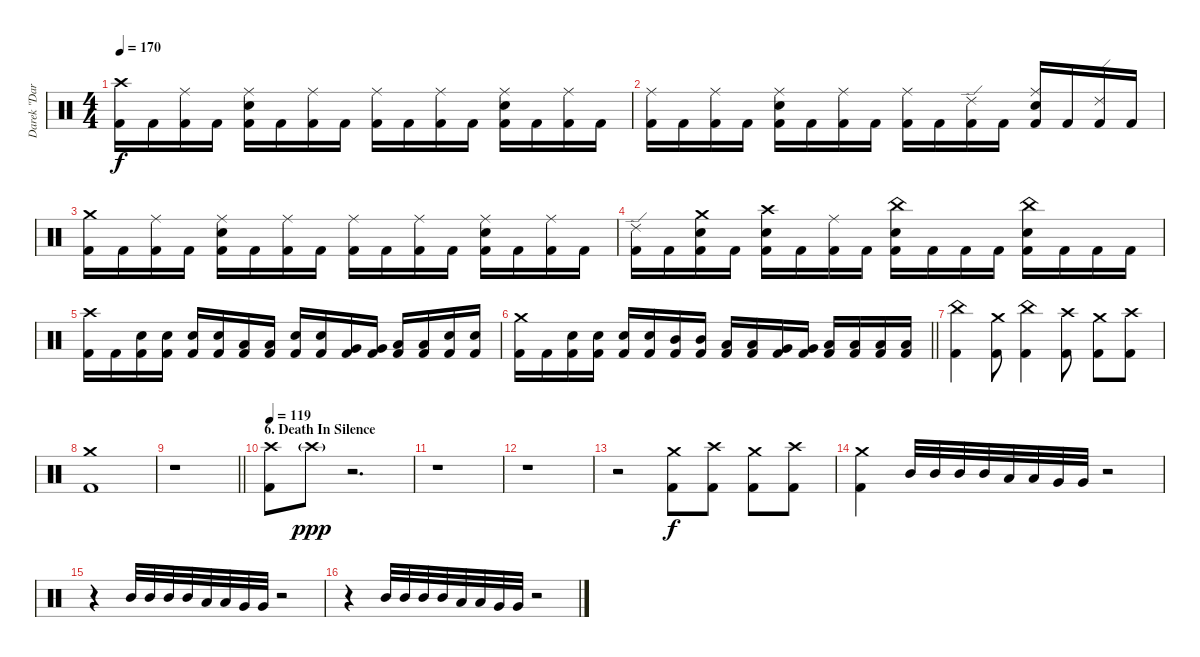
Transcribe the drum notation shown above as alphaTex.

\track ("Darek \"Daray\" Brzozowski " "Darek \"Dar") {instrument percussion}
\staff {score}
\articulation defaults
\ts (4 4)
\tempo 170
\clef neutral
\ks c
("Crash high (hit)" "Kick (hit) 2").16{dy f} "Kick (hit) 2".16 ("Ride (middle)" "Kick (hit) 2").16 "Kick (hit) 2".16 ("Ride (middle)" "Electric Snare (hit)" "Kick (hit) 2").16 "Kick (hit) 2".16 ("Ride (middle)" "Kick (hit) 2").16 "Kick (hit) 2".16 ("Ride (middle)" "Kick (hit) 2").16 "Kick (hit) 2".16 ("Ride (middle)" "Kick (hit) 2").16 "Kick (hit) 2".16 ("Ride (middle)" "Electric Snare (hit)" "Kick (hit) 2").16 "Kick (hit) 2".16 ("Ride (middle)" "Kick (hit) 2").16 "Kick (hit) 2".16 |
("Ride (middle)" "Kick (hit) 2").16 "Kick (hit) 2".16 ("Ride (middle)" "Kick (hit) 2").16 "Kick (hit) 2".16 ("Ride (middle)" "Electric Snare (hit)" "Kick (hit) 2").16 "Kick (hit) 2".16 ("Ride (middle)" "Kick (hit) 2").16 "Kick (hit) 2".16 ("Ride (middle)" "Kick (hit) 2").16 "Kick (hit) 2".16 ("Ride (edge) 2" "Kick (hit) 2").16 "Kick (hit) 2".16 ("Ride (middle)" "Electric Snare (hit)" "Kick (hit) 2").16 "Kick (hit) 2".16 ("Ride (edge) 2" "Kick (hit) 2").16 "Kick (hit) 2".16 |
("Crash medium (hit)" "Kick (hit) 2").16 "Kick (hit) 2".16 ("Ride (middle)" "Kick (hit) 2").16 "Kick (hit) 2".16 ("Ride (middle)" "Electric Snare (hit)" "Kick (hit) 2").16 "Kick (hit) 2".16 ("Ride (middle)" "Kick (hit) 2").16 "Kick (hit) 2".16 ("Ride (middle)" "Kick (hit) 2").16 "Kick (hit) 2".16 ("Ride (middle)" "Kick (hit) 2").16 "Kick (hit) 2".16 ("Ride (middle)" "Electric Snare (hit)" "Kick (hit) 2").16 "Kick (hit) 2".16 ("Ride (middle)" "Kick (hit) 2").16 "Kick (hit) 2".16 |
("Ride (edge) 2" "Kick (hit) 2").16 "Kick (hit) 2".16 ("Crash medium (hit)" "Electric Snare (hit)" "Kick (hit) 2").16 "Kick (hit) 2".16 ("Crash high (hit)" "Electric Snare (hit)" "Kick (hit) 2").16 "Kick (hit) 2".16 ("Ride (middle)" "Kick (hit) 2").16 "Kick (hit) 2".16 ("China (hit)" "Electric Snare (hit)" "Kick (hit) 2").16 "Kick (hit) 2".16 "Kick (hit) 2".16 "Kick (hit) 2".16 ("China (hit)" "Electric Snare (hit)" "Kick (hit) 2").16 "Kick (hit) 2".16 "Kick (hit) 2".16 "Kick (hit) 2".16 |
("Crash high (hit)" "Kick (hit) 2").16 "Kick (hit) 2".16 ("Electric Snare (hit)" "Kick (hit) 2").16 ("Electric Snare (hit)" "Kick (hit) 2").16 ("Electric Snare (hit)" "Kick (hit) 2").16 ("Electric Snare (hit)" "Kick (hit) 2").16 ("Low Tom (hit)" "Kick (hit) 2").16 ("Low Tom (hit)" "Kick (hit) 2").16 ("Electric Snare (hit)" "Kick (hit) 2").16 ("Electric Snare (hit)" "Kick (hit) 2").16 ("Very Low Tom (hit)" "Kick (hit) 2").16 ("Very Low Tom (hit)" "Kick (hit) 2").16 ("Low Floor Tom (hit)" "Kick (hit) 2").16 ("Low Floor Tom (hit)" "Kick (hit) 2").16 ("Electric Snare (hit)" "Kick (hit) 2").16 ("Electric Snare (hit)" "Kick (hit) 2").16 |
\barLineRight lightlight
("Crash medium (hit)" "Kick (hit) 2").16 "Kick (hit) 2".16 ("Electric Snare (hit)" "Kick (hit) 2").16 ("Electric Snare (hit)" "Kick (hit) 2").16 ("Electric Snare (hit)" "Kick (hit) 2").16 ("Electric Snare (hit)" "Kick (hit) 2").16 ("Mid Tom (hit)" "Kick (hit) 2").16 ("Mid Tom (hit)" "Kick (hit) 2").16 ("Low Tom (hit)" "Kick (hit) 2").16 ("Low Tom (hit)" "Kick (hit) 2").16 ("Very Low Tom (hit)" "Kick (hit) 2").16 ("Very Low Tom (hit)" "Kick (hit) 2").16 ("Low Floor Tom (hit)" "Kick (hit) 2").16 ("Low Floor Tom (hit)" "Kick (hit) 2").16 ("Low Floor Tom (hit)" "Kick (hit) 2").16 ("Low Floor Tom (hit)" "Kick (hit) 2").16 |
("China (hit)" "Kick (hit) 2").4 ("Crash medium (hit)" "Kick (hit) 2").8 ("China (hit)" "Kick (hit) 2").4 ("Crash high (hit)" "Kick (hit) 2").8 ("Crash medium (hit)" "Kick (hit) 2").8 ("Crash high (hit)" "Kick (hit) 2").8 |
("Crash medium (hit)" "Kick (hit) 2").1 |
\barLineRight lightlight
r.1 |
\section ("" "6. Death In Silence")
\tempo 119
("Crash high (hit)" "Kick (hit) 2").8 "Crash high (hit)"{g}.8{dy ppp} r.2{d} |
r.1 |
r.1 |
r.2 ("Crash medium (hit)" "Kick (hit) 2").8{dy f} ("Crash high (hit)" "Kick (hit) 2").8 ("Crash medium (hit)" "Kick (hit) 2").8 ("Crash high (hit)" "Kick (hit) 2").8 |
("Crash medium (hit)" "Kick (hit) 2").4 "Mid Tom (hit)".32 "Mid Tom (hit)".32 "Mid Tom (hit)".32 "Mid Tom (hit)".32 "Low Tom (hit)".32 "Low Tom (hit)".32 "Very Low Tom (hit)".32 "Very Low Tom (hit)".32 r.2 |
r.4 "Mid Tom (hit)".32 "Mid Tom (hit)".32 "Mid Tom (hit)".32 "Mid Tom (hit)".32 "Low Tom (hit)".32 "Low Tom (hit)".32 "Very Low Tom (hit)".32 "Very Low Tom (hit)".32 r.2 |
r.4 "Mid Tom (hit)".32 "Mid Tom (hit)".32 "Mid Tom (hit)".32 "Mid Tom (hit)".32 "Low Tom (hit)".32 "Low Tom (hit)".32 "Very Low Tom (hit)".32 "Very Low Tom (hit)".32 r.2
